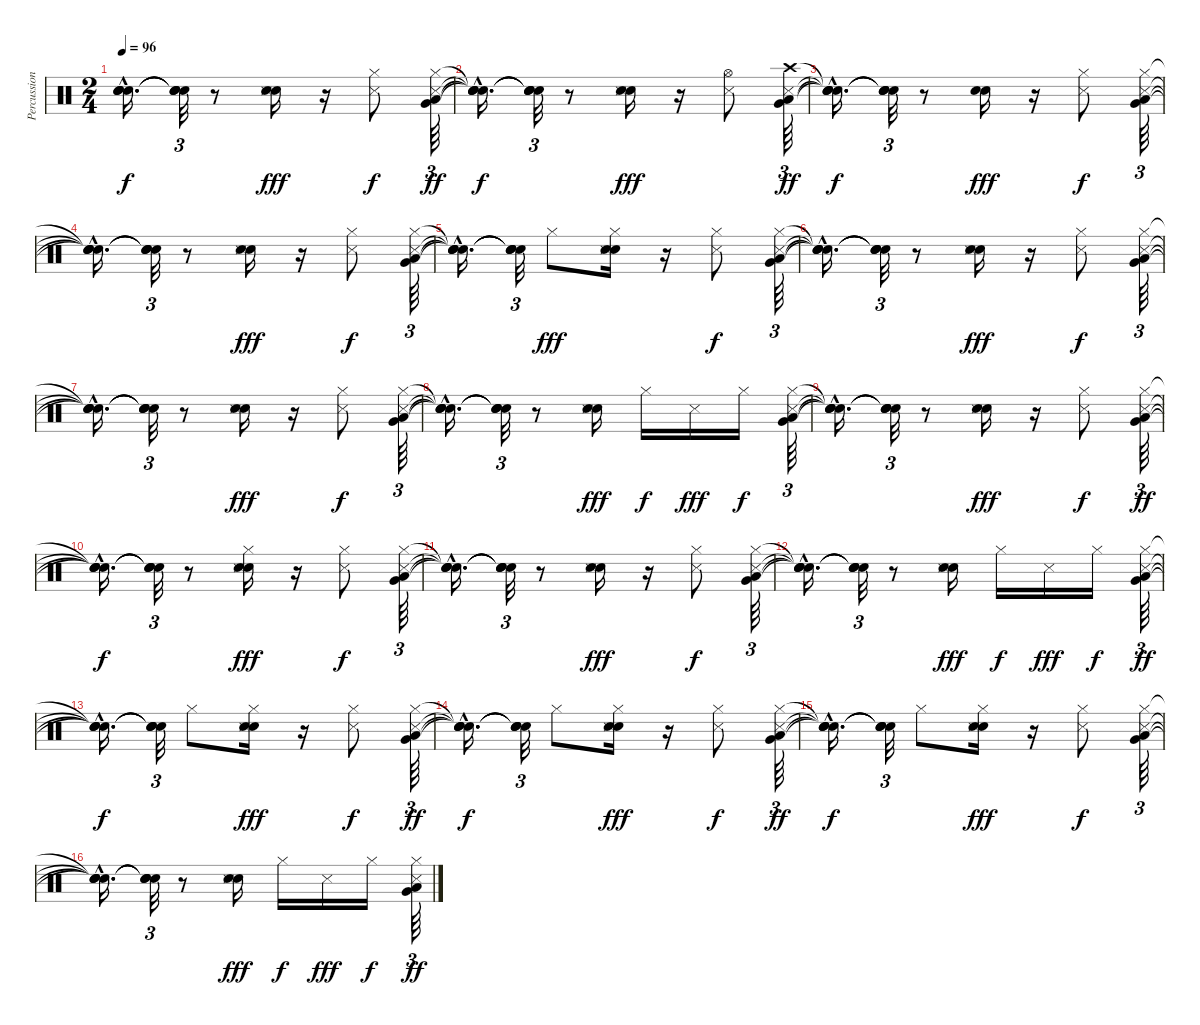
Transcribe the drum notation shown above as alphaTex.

\track ("Percussion" "Percussion") {instrument percussion}
\staff {score}
\articulation defaults
\ts (2 4)
\tempo 96
\clef neutral
\ks c
("Snare (hit)"{hac t} "Snare (hit)"{hac t} "Snare (hit)"{hac t} "Snare (hit)"{hac t}).16{d dy f} ("Snare (hit)"{t} "Snare (hit)"{t} "Snare (hit)"{t} "Snare (hit)"{t}).32{tu (3 2)} r.8 ("Electric Snare (hit)" "Snare (side stick) 3" "Snare (hit) 2").16{dy fff} r.16 ("Hi-Hat (closed)" "Snare (side stick) 3").8{dy f} ("Hi-Hat (closed)" "Snare (side stick) 3" "Very Low Tom (hit)" "Low Floor Tom (hit)").64{tu (3 2) dy ff} |
("Snare (hit)"{hac t} "Snare (hit)"{hac t} "Snare (hit)"{hac t} "Snare (hit)"{hac t}).16{d dy f} ("Snare (hit)"{t} "Snare (hit)"{t} "Snare (hit)"{t} "Snare (hit)"{t}).32{tu (3 2)} r.8 ("Electric Snare (hit)" "Snare (side stick) 3" "Snare (hit) 2").16{dy fff} r.16 ("Hi-Hat (open)" "Snare (side stick) 3").8 ("Crash high (hit)" "Snare (side stick) 3" "Very Low Tom (hit)" "Low Floor Tom (hit)").64{tu (3 2) dy ff} |
("Snare (hit)"{hac t} "Snare (hit)"{hac t} "Snare (hit)"{hac t} "Snare (hit)"{hac t}).16{d dy f} ("Snare (hit)"{t} "Snare (hit)"{t} "Snare (hit)"{t} "Snare (hit)"{t}).32{tu (3 2)} r.8 ("Electric Snare (hit)" "Snare (hit) 2").16{dy fff} r.16 ("Hi-Hat (closed)" "Snare (side stick) 3").8{dy f} ("Hi-Hat (closed)" "Snare (side stick) 3" "Very Low Tom (hit)" "Low Floor Tom (hit)").64{tu (3 2)} |
("Snare (hit)"{hac t} "Snare (hit)"{hac t} "Snare (hit)"{hac t} "Snare (hit)"{hac t}).16{d} ("Snare (hit)"{t} "Snare (hit)"{t} "Snare (hit)"{t} "Snare (hit)"{t}).32{tu (3 2)} r.8 ("Electric Snare (hit)" "Snare (side stick) 3" "Snare (hit) 2").16{dy fff} r.16 ("Hi-Hat (closed)" "Snare (side stick) 3").8{dy f} ("Hi-Hat (closed)" "Snare (side stick) 3" "Very Low Tom (hit)" "Low Floor Tom (hit)").64{tu (3 2)} |
("Snare (hit)"{hac t} "Snare (hit)"{hac t} "Snare (hit)"{hac t} "Snare (hit)"{hac t}).16{d} ("Snare (hit)"{t} "Snare (hit)"{t} "Snare (hit)"{t} "Snare (hit)"{t}).32{tu (3 2)} "Hi-Hat (closed)".8{dy fff} ("Hi-Hat (closed)" "Electric Snare (hit)" "Snare (side stick) 3" "Snare (hit) 2").16 r.16 ("Hi-Hat (closed)" "Snare (side stick) 3").8{dy f} ("Hi-Hat (closed)" "Snare (side stick) 3" "Very Low Tom (hit)" "Low Floor Tom (hit)").64{tu (3 2)} |
("Snare (hit)"{hac t} "Snare (hit)"{hac t} "Snare (hit)"{hac t} "Snare (hit)"{hac t}).16{d} ("Snare (hit)"{t} "Snare (hit)"{t} "Snare (hit)"{t} "Snare (hit)"{t}).32{tu (3 2)} r.8 ("Electric Snare (hit)" "Snare (side stick) 3" "Snare (hit) 2").16{dy fff} r.16 ("Hi-Hat (closed)" "Snare (side stick) 3").8{dy f} ("Hi-Hat (closed)" "Snare (side stick) 3" "Very Low Tom (hit)" "Low Floor Tom (hit)").64{tu (3 2)} |
("Snare (hit)"{hac t} "Snare (hit)"{hac t} "Snare (hit)"{hac t} "Snare (hit)"{hac t}).16{d} ("Snare (hit)"{t} "Snare (hit)"{t} "Snare (hit)"{t} "Snare (hit)"{t}).32{tu (3 2)} r.8 ("Electric Snare (hit)" "Snare (side stick) 3" "Snare (hit) 2").16{dy fff} r.16 ("Hi-Hat (closed)" "Snare (side stick) 3").8{dy f} ("Hi-Hat (closed)" "Snare (side stick) 3" "Very Low Tom (hit)" "Low Floor Tom (hit)").64{tu (3 2)} |
("Snare (hit)"{hac t} "Snare (hit)"{hac t} "Snare (hit)"{hac t} "Snare (hit)"{hac t}).16{d} ("Snare (hit)"{t} "Snare (hit)"{t} "Snare (hit)"{t} "Snare (hit)"{t}).32{tu (3 2)} r.8 ("Electric Snare (hit)" "Snare (side stick) 3" "Snare (hit) 2").16{dy fff} "Hi-Hat (closed)".16{dy f} "Snare (side stick) 3".16{dy fff} "Hi-Hat (closed)".16{dy f} ("Hi-Hat (closed)" "Snare (side stick) 3" "Very Low Tom (hit)" "Low Floor Tom (hit)").64{tu (3 2)} |
("Snare (hit)"{hac t} "Snare (hit)"{hac t} "Snare (hit)"{hac t} "Snare (hit)"{hac t}).16{d} ("Snare (hit)"{t} "Snare (hit)"{t} "Snare (hit)"{t} "Snare (hit)"{t}).32{tu (3 2)} r.8 ("Electric Snare (hit)" "Snare (side stick) 3" "Snare (hit) 2").16{dy fff} r.16 ("Hi-Hat (closed)" "Snare (side stick) 3").8{dy f} ("Hi-Hat (closed)" "Snare (side stick) 3" "Very Low Tom (hit)" "Low Floor Tom (hit)").64{tu (3 2) dy ff} |
("Snare (hit)"{hac t} "Snare (hit)"{hac t} "Snare (hit)"{hac t} "Snare (hit)"{hac t}).16{d dy f} ("Snare (hit)"{t} "Snare (hit)"{t} "Snare (hit)"{t} "Snare (hit)"{t}).32{tu (3 2)} r.8 ("Hi-Hat (closed)" "Electric Snare (hit)" "Snare (side stick) 3" "Snare (hit) 2").16{dy fff} r.16 ("Hi-Hat (closed)" "Snare (side stick) 3").8{dy f} ("Hi-Hat (closed)" "Snare (side stick) 3" "Very Low Tom (hit)" "Low Floor Tom (hit)").64{tu (3 2)} |
("Snare (hit)"{hac t} "Snare (hit)"{hac t} "Snare (hit)"{hac t} "Snare (hit)"{hac t}).16{d} ("Snare (hit)"{t} "Snare (hit)"{t} "Snare (hit)"{t} "Snare (hit)"{t}).32{tu (3 2)} r.8 ("Electric Snare (hit)" "Snare (side stick) 3" "Snare (hit) 2").16{dy fff} r.16 ("Hi-Hat (closed)" "Snare (side stick) 3").8{dy f} ("Hi-Hat (closed)" "Snare (side stick) 3" "Very Low Tom (hit)" "Low Floor Tom (hit)").64{tu (3 2)} |
("Snare (hit)"{hac t} "Snare (hit)"{hac t} "Snare (hit)"{hac t} "Snare (hit)"{hac t}).16{d} ("Snare (hit)"{t} "Snare (hit)"{t} "Snare (hit)"{t} "Snare (hit)"{t}).32{tu (3 2)} r.8 ("Electric Snare (hit)" "Snare (side stick) 3" "Snare (hit) 2").16{dy fff} "Hi-Hat (closed)".16{dy f} "Snare (side stick) 3".16{dy fff} "Hi-Hat (closed)".16{dy f} ("Hi-Hat (closed)" "Snare (side stick) 3" "Very Low Tom (hit)" "Low Floor Tom (hit)").64{tu (3 2) dy ff} |
("Snare (hit)"{hac t} "Snare (hit)"{hac t} "Snare (hit)"{hac t} "Snare (hit)"{hac t}).16{d dy f} ("Snare (hit)"{t} "Snare (hit)"{t} "Snare (hit)"{t} "Snare (hit)"{t}).32{tu (3 2)} "Hi-Hat (closed)".8 ("Hi-Hat (closed)" "Electric Snare (hit)" "Snare (side stick) 3" "Snare (hit) 2").16{dy fff} r.16 ("Hi-Hat (closed)" "Snare (side stick) 3").8{dy f} ("Hi-Hat (closed)" "Snare (side stick) 3" "Very Low Tom (hit)" "Low Floor Tom (hit)").64{tu (3 2) dy ff} |
("Snare (hit)"{hac t} "Snare (hit)"{hac t} "Snare (hit)"{hac t} "Snare (hit)"{hac t}).16{d dy f} ("Snare (hit)"{t} "Snare (hit)"{t} "Snare (hit)"{t} "Snare (hit)"{t}).32{tu (3 2)} "Hi-Hat (closed)".8 ("Hi-Hat (closed)" "Electric Snare (hit)" "Snare (side stick) 3" "Snare (hit) 2").16{dy fff} r.16 ("Hi-Hat (closed)" "Snare (side stick) 3").8{dy f} ("Hi-Hat (closed)" "Snare (side stick) 3" "Very Low Tom (hit)" "Low Floor Tom (hit)").64{tu (3 2) dy ff} |
("Snare (hit)"{hac t} "Snare (hit)"{hac t} "Snare (hit)"{hac t} "Snare (hit)"{hac t}).16{d dy f} ("Snare (hit)"{t} "Snare (hit)"{t} "Snare (hit)"{t} "Snare (hit)"{t}).32{tu (3 2)} "Hi-Hat (closed)".8 ("Hi-Hat (closed)" "Electric Snare (hit)" "Snare (side stick) 3" "Snare (hit) 2").16{dy fff} r.16 ("Hi-Hat (closed)" "Snare (side stick) 3").8{dy f} ("Hi-Hat (closed)" "Snare (side stick) 3" "Very Low Tom (hit)" "Low Floor Tom (hit)").64{tu (3 2)} |
("Snare (hit)"{hac t} "Snare (hit)"{hac t} "Snare (hit)"{hac t} "Snare (hit)"{hac t}).16{d} ("Snare (hit)"{t} "Snare (hit)"{t} "Snare (hit)"{t} "Snare (hit)"{t}).32{tu (3 2)} r.8 ("Electric Snare (hit)" "Snare (side stick) 3" "Snare (hit) 2").16{dy fff} "Hi-Hat (closed)".16{dy f} "Snare (side stick) 3".16{dy fff} "Hi-Hat (closed)".16{dy f} ("Hi-Hat (closed)" "Snare (side stick) 3" "Very Low Tom (hit)" "Low Floor Tom (hit)").64{tu (3 2) dy ff}
